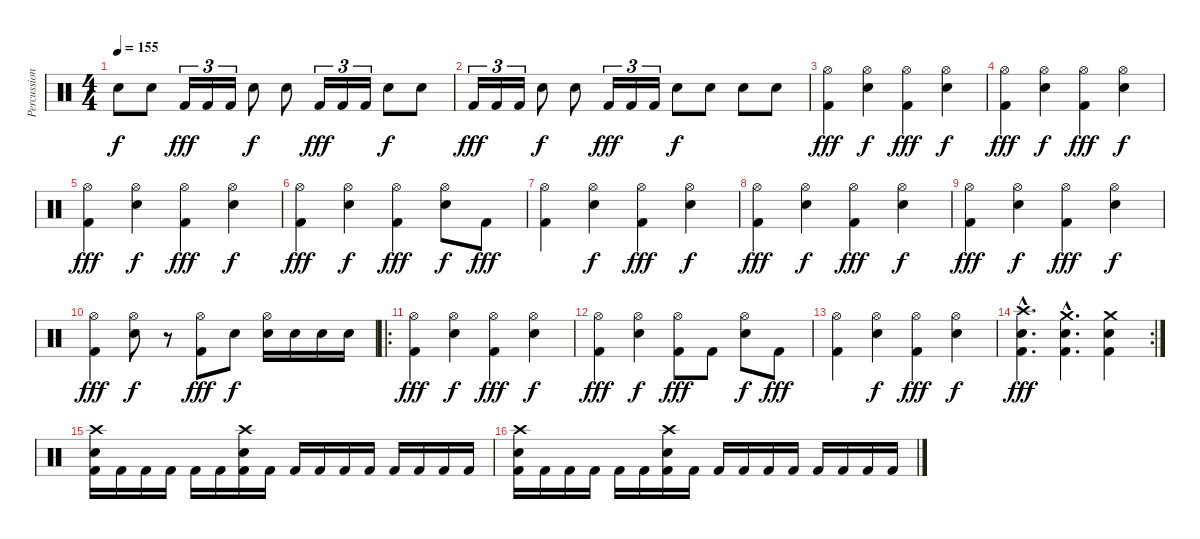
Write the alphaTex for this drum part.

\track ("Percussion" "Percussion") {instrument percussion}
\staff {score}
\articulation defaults
\ts (4 4)
\tempo 155
\clef neutral
\ks c "Snare (hit) 2".8{dy f} "Snare (hit) 2".8 "Kick (hit) 2".16{tu (3 2) dy fff} "Kick (hit) 2".16{tu (3 2)} "Kick (hit) 2".16{tu (3 2)} "Snare (hit) 2".8{dy f} "Snare (hit) 2".8 "Kick (hit) 2".16{tu (3 2) dy fff} "Kick (hit) 2".16{tu (3 2)} "Kick (hit) 2".16{tu (3 2)} "Snare (hit) 2".8{dy f} "Snare (hit) 2".8
|
"Kick (hit) 2".16{tu (3 2) dy fff} "Kick (hit) 2".16{tu (3 2)} "Kick (hit) 2".16{tu (3 2)} "Snare (hit) 2".8{dy f} "Snare (hit) 2".8 "Kick (hit) 2".16{tu (3 2) dy fff} "Kick (hit) 2".16{tu (3 2)} "Kick (hit) 2".16{tu (3 2)} "Snare (hit) 2".8{dy f} "Snare (hit) 2".8 "Snare (hit) 2".8 "Snare (hit) 2".8 |
("Hi-Hat (open)" "Kick (hit) 2").4{dy fff} ("Hi-Hat (open)" "Snare (hit) 2").4{dy f} ("Hi-Hat (open)" "Kick (hit) 2").4{dy fff} ("Hi-Hat (open)" "Snare (hit) 2").4{dy f} |
("Hi-Hat (open)" "Kick (hit) 2").4{dy fff} ("Hi-Hat (open)" "Snare (hit) 2").4{dy f} ("Hi-Hat (open)" "Kick (hit) 2").4{dy fff} ("Hi-Hat (open)" "Snare (hit) 2").4{dy f} |
("Hi-Hat (open)" "Kick (hit) 2").4{dy fff} ("Hi-Hat (open)" "Snare (hit) 2").4{dy f} ("Hi-Hat (open)" "Kick (hit) 2").4{dy fff} ("Hi-Hat (open)" "Snare (hit) 2").4{dy f} |
("Hi-Hat (open)" "Kick (hit) 2").4{dy fff} ("Hi-Hat (open)" "Snare (hit) 2").4{dy f} ("Hi-Hat (open)" "Kick (hit) 2").4{dy fff} ("Hi-Hat (open)" "Snare (hit) 2").8{dy f} "Kick (hit) 2".8{dy fff} |
("Hi-Hat (open)" "Kick (hit) 2").4 ("Hi-Hat (open)" "Snare (hit) 2").4{dy f} ("Hi-Hat (open)" "Kick (hit) 2").4{dy fff} ("Hi-Hat (open)" "Snare (hit) 2").4{dy f} |
("Hi-Hat (open)" "Kick (hit) 2").4{dy fff} ("Hi-Hat (open)" "Snare (hit) 2").4{dy f} ("Hi-Hat (open)" "Kick (hit) 2").4{dy fff} ("Hi-Hat (open)" "Snare (hit) 2").4{dy f} |
("Hi-Hat (open)" "Kick (hit) 2").4{dy fff} ("Hi-Hat (open)" "Snare (hit) 2").4{dy f} ("Hi-Hat (open)" "Kick (hit) 2").4{dy fff} ("Hi-Hat (open)" "Snare (hit) 2").4{dy f} |
("Hi-Hat (open)" "Kick (hit) 2").4{dy fff} ("Hi-Hat (open)" "Snare (hit) 2").8{dy f} r.8 ("Hi-Hat (open)" "Kick (hit) 2").8{dy fff} "Snare (hit) 2".8{dy f} ("Hi-Hat (open)" "Snare (hit) 2").16 "Snare (hit) 2".16 "Snare (hit) 2".16 "Snare (hit) 2".16 |
\ro
("Hi-Hat (open)" "Kick (hit) 2").4{dy fff} ("Hi-Hat (open)" "Snare (hit) 2").4{dy f} ("Hi-Hat (open)" "Kick (hit) 2").4{dy fff} ("Hi-Hat (open)" "Snare (hit) 2").4{dy f} |
("Hi-Hat (open)" "Kick (hit) 2").4{dy fff} ("Hi-Hat (open)" "Snare (hit) 2").4{dy f} ("Hi-Hat (open)" "Kick (hit) 2").8{dy fff} "Kick (hit) 2".8 ("Hi-Hat (open)" "Snare (hit) 2").8{dy f} "Kick (hit) 2".8{dy fff} |
("Hi-Hat (open)" "Kick (hit) 2").4 ("Hi-Hat (open)" "Snare (hit) 2").4{dy f} ("Hi-Hat (open)" "Kick (hit) 2").4{dy fff} ("Hi-Hat (open)" "Snare (hit) 2").4{dy f} |
\rc 2
("Crash high (hit)"{hac} "Snare (hit) 2"{hac} "Kick (hit) 2"{hac}).4{d dy fff} ("Crash medium (hit)"{hac} "Snare (hit) 2"{hac} "Kick (hit) 2"{hac}).4{d} ("Crash medium (hit)" "Snare (hit) 2" "Kick (hit) 2").4 |
("Crash high (hit)" "Snare (hit) 2" "Kick (hit) 2").16 "Kick (hit) 2".16 "Kick (hit) 2".16 "Kick (hit) 2".16 "Kick (hit) 2".16 "Kick (hit) 2".16 ("Crash high (hit)" "Snare (hit) 2" "Kick (hit) 2").16 "Kick (hit) 2".16 "Kick (hit) 2".16 "Kick (hit) 2".16 "Kick (hit) 2".16 "Kick (hit) 2".16 "Kick (hit) 2".16 "Kick (hit) 2".16 "Kick (hit) 2".16 "Kick (hit) 2".16 |
("Crash high (hit)" "Snare (hit) 2" "Kick (hit) 2").16 "Kick (hit) 2".16 "Kick (hit) 2".16 "Kick (hit) 2".16 "Kick (hit) 2".16 "Kick (hit) 2".16 ("Crash high (hit)" "Snare (hit) 2" "Kick (hit) 2").16 "Kick (hit) 2".16 "Kick (hit) 2".16 "Kick (hit) 2".16 "Kick (hit) 2".16 "Kick (hit) 2".16 "Kick (hit) 2".16 "Kick (hit) 2".16 "Kick (hit) 2".16 "Kick (hit) 2".16
